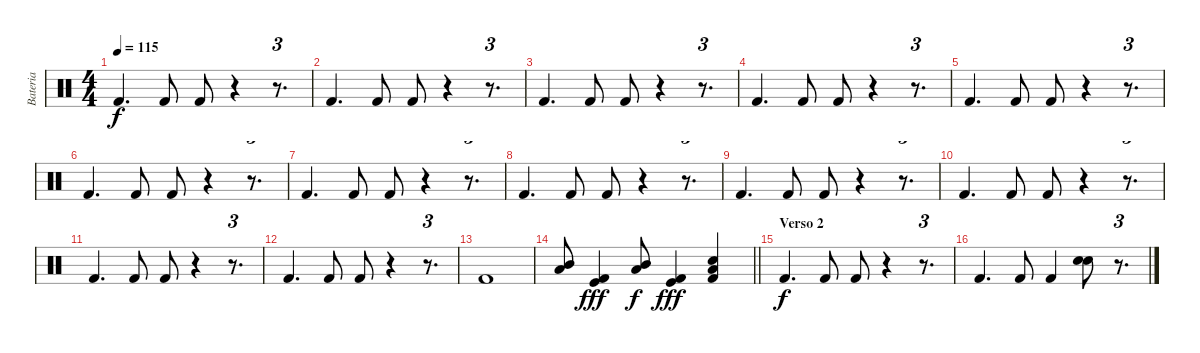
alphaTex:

\track ("Bateria" "Bateria") {instrument percussion}
\staff {score}
\articulation defaults
\ts (4 4)
\tempo 115
\clef neutral
\ks c "Kick (hit) 2".4{d dy f} "Kick (hit) 2".8 "Kick (hit) 2".8
r.4 r.8{d tu (3 2)} |
"Kick (hit) 2".4{d} "Kick (hit) 2".8 "Kick (hit) 2".8 r.4 r.8{d tu (3 2)} |
"Kick (hit) 2".4{d} "Kick (hit) 2".8 "Kick (hit) 2".8 r.4 r.8{d tu (3 2)} |
"Kick (hit) 2".4{d} "Kick (hit) 2".8 "Kick (hit) 2".8 r.4 r.8{d tu (3 2)} |
"Kick (hit) 2".4{d} "Kick (hit) 2".8 "Kick (hit) 2".8 r.4 r.8{d tu (3 2)} |
"Kick (hit) 2".4{d} "Kick (hit) 2".8 "Kick (hit) 2".8 r.4 r.8{d tu (3 2)} |
"Kick (hit) 2".4{d} "Kick (hit) 2".8 "Kick (hit) 2".8 r.4 r.8{d tu (3 2)} |
"Kick (hit) 2".4{d} "Kick (hit) 2".8 "Kick (hit) 2".8 r.4 r.8{d tu (3 2)} |
"Kick (hit) 2".4{d} "Kick (hit) 2".8 "Kick (hit) 2".8 r.4 r.8{d tu (3 2)} |
"Kick (hit) 2".4{d} "Kick (hit) 2".8 "Kick (hit) 2".8 r.4 r.8{d tu (3 2)} |
"Kick (hit) 2".4{d} "Kick (hit) 2".8 "Kick (hit) 2".8 r.4 r.8{d tu (3 2)} |
"Kick (hit) 2".4{d} "Kick (hit) 2".8 "Kick (hit) 2".8 r.4 r.8{d tu (3 2)} |
"Kick (hit) 2".1 |
\barLineRight lightlight
("Low Tom (hit)" "Mid Tom (hit)").8 ("Kick (hit) 2" "Kick (hit)").4{dy fff} ("Low Tom (hit)" "Mid Tom (hit)").8{dy f} ("Kick (hit) 2" "Kick (hit)").4{dy fff} ("Low Tom (hit)" "Kick (hit) 2" "Electric Snare (hit)").4 |
\section ("" "Verso 2")
"Kick (hit) 2".4{d dy f} "Kick (hit) 2".8 "Kick (hit) 2".8 r.4 r.8{d tu (3 2)} |
"Kick (hit) 2".4{d} "Kick (hit) 2".8 "Kick (hit) 2".4 ("Snare (hit) 2" "Electric Snare (hit)").8 r.8{d tu (3 2)}
